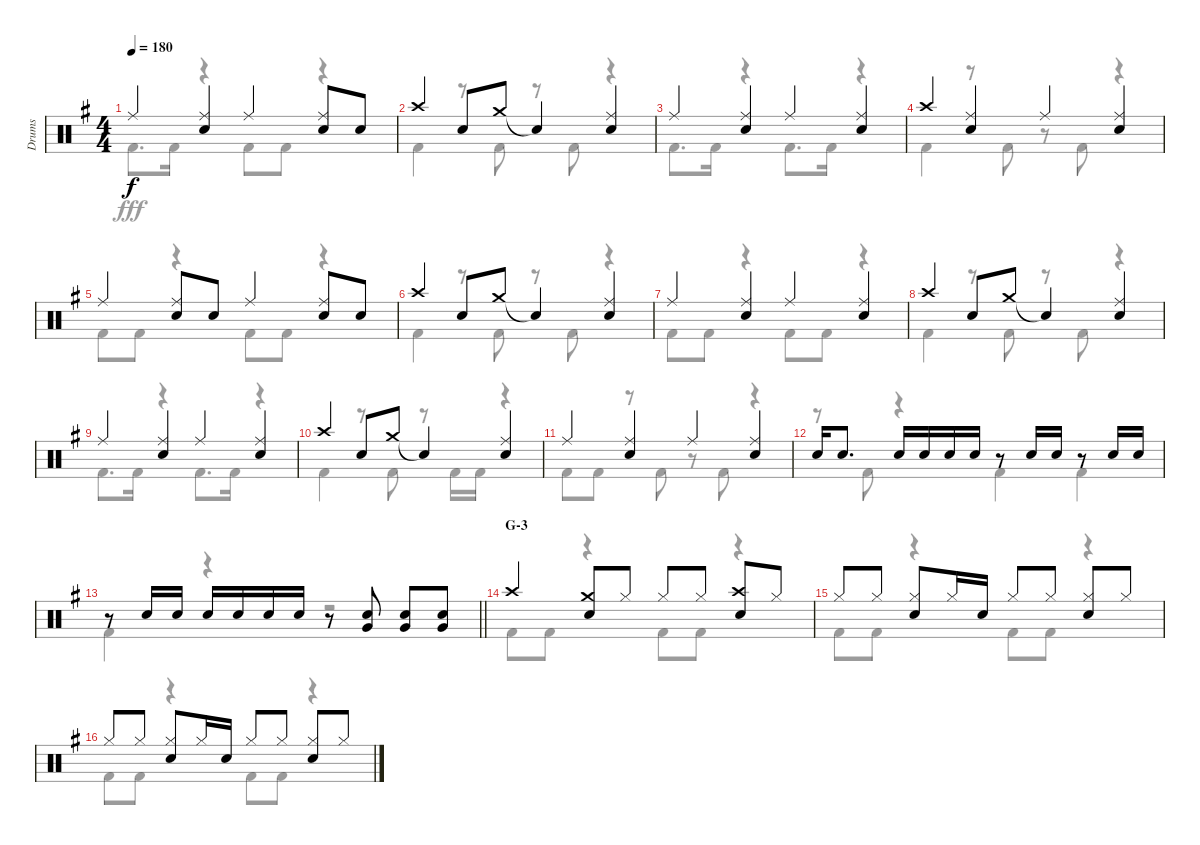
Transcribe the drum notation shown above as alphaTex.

\track ("Drums" "Drums") {instrument percussion}
\staff {score}
\articulation defaults
\voice
\ts (4 4)
\tempo 180
\clef neutral
\ks g "Ride (middle)".4{dy f}
("Ride (middle)" "Snare (hit) 2").4 "Ride (middle)".4 ("Ride (middle)" "Snare (hit) 2").8 "Snare (hit) 2".8 |
"Crash high (hit)".4 "Snare (hit) 2".8 "Crash medium (hit)".8 "Snare (hit)"{t}.4 ("Ride (middle)" "Snare (hit) 2").4 |
"Ride (middle)".4 ("Ride (middle)" "Snare (hit) 2").4 "Ride (middle)".4 ("Ride (middle)" "Snare (hit) 2").4 |
"Crash high (hit)".4 ("Ride (middle)" "Snare (hit) 2").4 "Ride (middle)".4 ("Ride (middle)" "Snare (hit) 2").4 |
"Ride (middle)".4 ("Ride (middle)" "Snare (hit) 2").8 "Snare (hit) 2".8 "Ride (middle)".4 ("Ride (middle)" "Snare (hit) 2").8 "Snare (hit) 2".8 |
"Crash high (hit)".4 "Snare (hit) 2".8 "Crash medium (hit)".8 "Snare (hit)"{t}.4 ("Ride (middle)" "Snare (hit) 2").4 |
"Ride (middle)".4 ("Ride (middle)" "Snare (hit) 2").4 "Ride (middle)".4 ("Ride (middle)" "Snare (hit) 2").4 |
"Crash high (hit)".4 "Snare (hit) 2".8 "Crash medium (hit)".8 "Snare (hit)"{t}.4 ("Ride (middle)" "Snare (hit) 2").4 |
"Ride (middle)".4 ("Ride (middle)" "Snare (hit) 2").4 "Ride (middle)".4 ("Ride (middle)" "Snare (hit) 2").4 |
"Crash high (hit)".4 "Snare (hit) 2".8 "Crash medium (hit)".8 "Snare (hit)"{t}.4 ("Ride (middle)" "Snare (hit) 2").4 |
"Ride (middle)".4 ("Ride (middle)" "Snare (hit) 2").4 "Ride (middle)".4 ("Ride (middle)" "Snare (hit) 2").4 |
"Snare (hit) 2".16 "Snare (hit) 2".8{d} "Snare (hit) 2".16 "Snare (hit) 2".16 "Snare (hit) 2".16 "Snare (hit) 2".16 r.8 "Snare (hit) 2".16 "Snare (hit) 2".16 r.8 "Snare (hit) 2".16 "Snare (hit) 2".16 |
\barLineRight lightlight
r.8 "Snare (hit) 2".16 "Snare (hit) 2".16 "Snare (hit) 2".16 "Snare (hit) 2".16 "Snare (hit) 2".16 "Snare (hit) 2".16 r.8 ("Snare (hit) 2" "Very Low Tom (hit)").8 ("Snare (hit) 2" "Very Low Tom (hit)").8 ("Snare (hit) 2" "Very Low Tom (hit)").8 |
\section ("" "G-3")
"Crash high (hit)".4 ("Crash medium (hit)" "Snare (hit) 2").8 "Hi-Hat (closed)".8 "Hi-Hat (closed)".8 "Hi-Hat (closed)".8 ("Crash high (hit)" "Snare (hit) 2").8 "Hi-Hat (closed)".8 |
"Hi-Hat (closed)".8 "Hi-Hat (closed)".8 ("Hi-Hat (closed)" "Snare (hit) 2").8 "Hi-Hat (closed)".16 "Snare (hit) 2".16 "Hi-Hat (closed)".8 "Hi-Hat (closed)".8 ("Hi-Hat (closed)" "Snare (hit) 2").8 "Hi-Hat (closed)".8 |
"Hi-Hat (closed)".8 "Hi-Hat (closed)".8 ("Hi-Hat (closed)" "Snare (hit) 2").8 "Hi-Hat (closed)".16 "Snare (hit) 2".16 "Hi-Hat (closed)".8 "Hi-Hat (closed)".8 ("Hi-Hat (closed)" "Snare (hit) 2").8 "Hi-Hat (closed)".8
\voice
\clef neutral
\ottava regular
\simile none
\ks g "Kick (hit) 2".8{d dy fff} "Kick (hit) 2".16
r.4 "Kick (hit) 2".8 "Kick (hit) 2".8 r.4 |
"Kick (hit) 2".4 r.8 "Kick (hit) 2".8 r.8 "Kick (hit) 2".8 r.4 |
"Kick (hit) 2".8{d} "Kick (hit) 2".16 r.4 "Kick (hit) 2".8{d} "Kick (hit) 2".16 r.4 |
"Kick (hit) 2".4 r.8 "Kick (hit) 2".8 r.8 "Kick (hit) 2".8 r.4 |
"Kick (hit) 2".8 "Kick (hit) 2".8 r.4 "Kick (hit) 2".8 "Kick (hit) 2".8 r.4 |
"Kick (hit) 2".4 r.8 "Kick (hit) 2".8 r.8 "Kick (hit) 2".8 r.4 |
"Kick (hit) 2".8 "Kick (hit) 2".8 r.4 "Kick (hit) 2".8 "Kick (hit) 2".8 r.4 |
"Kick (hit) 2".4 r.8 "Kick (hit) 2".8 r.8 "Kick (hit) 2".8 r.4 |
"Kick (hit) 2".8{d} "Kick (hit) 2".16 r.4 "Kick (hit) 2".8{d} "Kick (hit) 2".16 r.4 |
"Kick (hit) 2".4 r.8 "Kick (hit) 2".8 r.8 "Kick (hit) 2".16 "Kick (hit) 2".16 r.4 |
"Kick (hit) 2".8 "Kick (hit) 2".8 r.8 "Kick (hit) 2".8 r.8 "Kick (hit) 2".8 r.4 |
r.8 "Kick (hit) 2".8 r.4 "Kick (hit) 2".4 "Kick (hit) 2".4 |
\barLineRight lightlight "Kick (hit) 2".4
r.4 r.2 |
"Kick (hit) 2".8 "Kick (hit) 2".8 r.4 "Kick (hit) 2".8 "Kick (hit) 2".8 r.4 |
"Kick (hit) 2".8 "Kick (hit) 2".8 r.4 "Kick (hit) 2".8 "Kick (hit) 2".8 r.4 |
"Kick (hit) 2".8 "Kick (hit) 2".8 r.4 "Kick (hit) 2".8 "Kick (hit) 2".8 r.4
